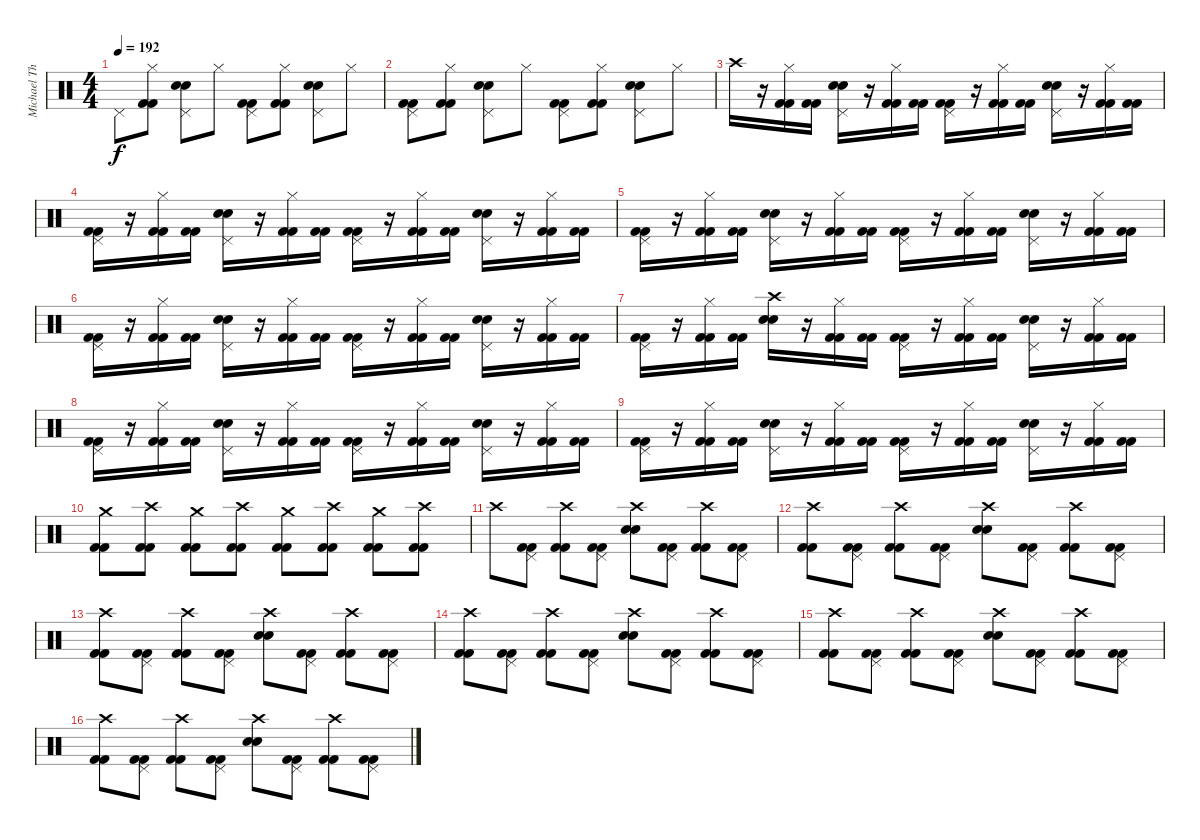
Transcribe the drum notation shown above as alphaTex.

\track ("Michael Thomas" "Michael Th") {instrument percussion}
\staff {score}
\articulation defaults
\ts (4 4)
\tempo 192
\clef neutral
\ks c "Pedal Hi-Hat (hit)".8{dy f}
("Hi-Hat (closed)" "Kick (hit) 2" "Kick (hit) 2").8 ("Pedal Hi-Hat (hit)" "Snare (hit) 2" "Electric Snare (hit)").8 "Hi-Hat (closed)".8 ("Pedal Hi-Hat (hit)" "Kick (hit) 2" "Kick (hit) 2").8 ("Hi-Hat (closed)" "Kick (hit) 2" "Kick (hit) 2").8 ("Pedal Hi-Hat (hit)" "Snare (hit) 2" "Electric Snare (hit)").8 "Hi-Hat (closed)".8 |
("Pedal Hi-Hat (hit)" "Kick (hit) 2" "Kick (hit) 2").8 ("Hi-Hat (closed)" "Kick (hit) 2" "Kick (hit) 2").8 ("Pedal Hi-Hat (hit)" "Snare (hit) 2" "Electric Snare (hit)").8 "Hi-Hat (closed)".8 ("Pedal Hi-Hat (hit)" "Kick (hit) 2" "Kick (hit) 2").8 ("Hi-Hat (closed)" "Kick (hit) 2" "Kick (hit) 2").8 ("Pedal Hi-Hat (hit)" "Snare (hit) 2" "Electric Snare (hit)").8 "Hi-Hat (closed)".8 |
"Crash high (hit)".16 r.16 ("Hi-Hat (closed)" "Kick (hit) 2" "Kick (hit) 2").16 ("Kick (hit) 2" "Kick (hit) 2").16 ("Pedal Hi-Hat (hit)" "Snare (hit) 2" "Electric Snare (hit)").16 r.16 ("Hi-Hat (closed)" "Kick (hit) 2" "Kick (hit) 2").16 ("Kick (hit) 2" "Kick (hit) 2").16 ("Pedal Hi-Hat (hit)" "Kick (hit) 2" "Kick (hit) 2").16 r.16 ("Hi-Hat (closed)" "Kick (hit) 2" "Kick (hit) 2").16 ("Kick (hit) 2" "Kick (hit) 2").16 ("Pedal Hi-Hat (hit)" "Snare (hit) 2" "Electric Snare (hit)").16 r.16 ("Hi-Hat (closed)" "Kick (hit) 2" "Kick (hit) 2").16 ("Kick (hit) 2" "Kick (hit) 2").16 |
("Pedal Hi-Hat (hit)" "Kick (hit) 2" "Kick (hit) 2").16 r.16 ("Hi-Hat (closed)" "Kick (hit) 2" "Kick (hit) 2").16 ("Kick (hit) 2" "Kick (hit) 2").16 ("Pedal Hi-Hat (hit)" "Snare (hit) 2" "Electric Snare (hit)").16 r.16 ("Hi-Hat (closed)" "Kick (hit) 2" "Kick (hit) 2").16 ("Kick (hit) 2" "Kick (hit) 2").16 ("Pedal Hi-Hat (hit)" "Kick (hit) 2" "Kick (hit) 2").16 r.16 ("Hi-Hat (closed)" "Kick (hit) 2" "Kick (hit) 2").16 ("Kick (hit) 2" "Kick (hit) 2").16 ("Pedal Hi-Hat (hit)" "Snare (hit) 2" "Electric Snare (hit)").16 r.16 ("Hi-Hat (closed)" "Kick (hit) 2" "Kick (hit) 2").16 ("Kick (hit) 2" "Kick (hit) 2").16 |
("Pedal Hi-Hat (hit)" "Kick (hit) 2" "Kick (hit) 2").16 r.16 ("Hi-Hat (closed)" "Kick (hit) 2" "Kick (hit) 2").16 ("Kick (hit) 2" "Kick (hit) 2").16 ("Pedal Hi-Hat (hit)" "Snare (hit) 2" "Electric Snare (hit)").16 r.16 ("Hi-Hat (closed)" "Kick (hit) 2" "Kick (hit) 2").16 ("Kick (hit) 2" "Kick (hit) 2").16 ("Pedal Hi-Hat (hit)" "Kick (hit) 2" "Kick (hit) 2").16 r.16 ("Hi-Hat (closed)" "Kick (hit) 2" "Kick (hit) 2").16 ("Kick (hit) 2" "Kick (hit) 2").16 ("Pedal Hi-Hat (hit)" "Snare (hit) 2" "Electric Snare (hit)").16 r.16 ("Hi-Hat (closed)" "Kick (hit) 2" "Kick (hit) 2").16 ("Kick (hit) 2" "Kick (hit) 2").16 |
("Pedal Hi-Hat (hit)" "Kick (hit) 2" "Kick (hit) 2").16 r.16 ("Hi-Hat (closed)" "Kick (hit) 2" "Kick (hit) 2").16 ("Kick (hit) 2" "Kick (hit) 2").16 ("Pedal Hi-Hat (hit)" "Snare (hit) 2" "Electric Snare (hit)").16 r.16 ("Hi-Hat (closed)" "Kick (hit) 2" "Kick (hit) 2").16 ("Kick (hit) 2" "Kick (hit) 2").16 ("Pedal Hi-Hat (hit)" "Kick (hit) 2" "Kick (hit) 2").16 r.16 ("Hi-Hat (closed)" "Kick (hit) 2" "Kick (hit) 2").16 ("Kick (hit) 2" "Kick (hit) 2").16 ("Pedal Hi-Hat (hit)" "Snare (hit) 2" "Electric Snare (hit)").16 r.16 ("Hi-Hat (closed)" "Kick (hit) 2" "Kick (hit) 2").16 ("Kick (hit) 2" "Kick (hit) 2").16 |
("Pedal Hi-Hat (hit)" "Kick (hit) 2" "Kick (hit) 2").16 r.16 ("Hi-Hat (closed)" "Kick (hit) 2" "Kick (hit) 2").16 ("Kick (hit) 2" "Kick (hit) 2").16 ("Crash high (hit)" "Snare (hit) 2" "Electric Snare (hit)").16 r.16 ("Hi-Hat (closed)" "Kick (hit) 2" "Kick (hit) 2").16 ("Kick (hit) 2" "Kick (hit) 2").16 ("Pedal Hi-Hat (hit)" "Kick (hit) 2" "Kick (hit) 2").16 r.16 ("Hi-Hat (closed)" "Kick (hit) 2" "Kick (hit) 2").16 ("Kick (hit) 2" "Kick (hit) 2").16 ("Pedal Hi-Hat (hit)" "Snare (hit) 2" "Electric Snare (hit)").16 r.16 ("Hi-Hat (closed)" "Kick (hit) 2" "Kick (hit) 2").16 ("Kick (hit) 2" "Kick (hit) 2").16 |
("Pedal Hi-Hat (hit)" "Kick (hit) 2" "Kick (hit) 2").16 r.16 ("Hi-Hat (closed)" "Kick (hit) 2" "Kick (hit) 2").16 ("Kick (hit) 2" "Kick (hit) 2").16 ("Pedal Hi-Hat (hit)" "Snare (hit) 2" "Electric Snare (hit)").16 r.16 ("Hi-Hat (closed)" "Kick (hit) 2" "Kick (hit) 2").16 ("Kick (hit) 2" "Kick (hit) 2").16 ("Pedal Hi-Hat (hit)" "Kick (hit) 2" "Kick (hit) 2").16 r.16 ("Hi-Hat (closed)" "Kick (hit) 2" "Kick (hit) 2").16 ("Kick (hit) 2" "Kick (hit) 2").16 ("Pedal Hi-Hat (hit)" "Snare (hit) 2" "Electric Snare (hit)").16 r.16 ("Hi-Hat (closed)" "Kick (hit) 2" "Kick (hit) 2").16 ("Kick (hit) 2" "Kick (hit) 2").16 |
("Pedal Hi-Hat (hit)" "Kick (hit) 2" "Kick (hit) 2").16 r.16 ("Hi-Hat (closed)" "Kick (hit) 2" "Kick (hit) 2").16 ("Kick (hit) 2" "Kick (hit) 2").16 ("Pedal Hi-Hat (hit)" "Snare (hit) 2" "Electric Snare (hit)").16 r.16 ("Hi-Hat (closed)" "Kick (hit) 2" "Kick (hit) 2").16 ("Kick (hit) 2" "Kick (hit) 2").16 ("Pedal Hi-Hat (hit)" "Kick (hit) 2" "Kick (hit) 2").16 r.16 ("Hi-Hat (closed)" "Kick (hit) 2" "Kick (hit) 2").16 ("Kick (hit) 2" "Kick (hit) 2").16 ("Pedal Hi-Hat (hit)" "Snare (hit) 2" "Electric Snare (hit)").16 r.16 ("Hi-Hat (closed)" "Kick (hit) 2" "Kick (hit) 2").16 ("Kick (hit) 2" "Kick (hit) 2").16 |
("Crash medium (hit)" "Kick (hit) 2" "Kick (hit) 2").8 ("Crash high (hit)" "Kick (hit) 2" "Kick (hit) 2").8 ("Crash medium (hit)" "Kick (hit) 2" "Kick (hit) 2").8 ("Crash high (hit)" "Kick (hit) 2" "Kick (hit) 2").8 ("Crash medium (hit)" "Kick (hit) 2" "Kick (hit) 2").8 ("Crash high (hit)" "Kick (hit) 2" "Kick (hit) 2").8 ("Crash medium (hit)" "Kick (hit) 2" "Kick (hit) 2").8 ("Crash high (hit)" "Kick (hit) 2" "Kick (hit) 2").8 |
"Crash high (hit)".8 ("Pedal Hi-Hat (hit)" "Kick (hit) 2" "Kick (hit) 2").8 ("Crash high (hit)" "Kick (hit) 2" "Kick (hit) 2").8 ("Pedal Hi-Hat (hit)" "Kick (hit) 2" "Kick (hit) 2").8 ("Crash high (hit)" "Snare (hit) 2" "Electric Snare (hit)").8 ("Pedal Hi-Hat (hit)" "Kick (hit) 2" "Kick (hit) 2").8 ("Crash high (hit)" "Kick (hit) 2" "Kick (hit) 2").8 ("Pedal Hi-Hat (hit)" "Kick (hit) 2" "Kick (hit) 2").8 |
("Crash high (hit)" "Kick (hit) 2" "Kick (hit) 2").8 ("Pedal Hi-Hat (hit)" "Kick (hit) 2" "Kick (hit) 2").8 ("Crash high (hit)" "Kick (hit) 2" "Kick (hit) 2").8 ("Pedal Hi-Hat (hit)" "Kick (hit) 2" "Kick (hit) 2").8 ("Crash high (hit)" "Snare (hit) 2" "Electric Snare (hit)").8 ("Pedal Hi-Hat (hit)" "Kick (hit) 2" "Kick (hit) 2").8 ("Crash high (hit)" "Kick (hit) 2" "Kick (hit) 2").8 ("Pedal Hi-Hat (hit)" "Kick (hit) 2" "Kick (hit) 2").8 |
("Crash high (hit)" "Kick (hit) 2" "Kick (hit) 2").8 ("Pedal Hi-Hat (hit)" "Kick (hit) 2" "Kick (hit) 2").8 ("Crash high (hit)" "Kick (hit) 2" "Kick (hit) 2").8 ("Pedal Hi-Hat (hit)" "Kick (hit) 2" "Kick (hit) 2").8 ("Crash high (hit)" "Snare (hit) 2" "Electric Snare (hit)").8 ("Pedal Hi-Hat (hit)" "Kick (hit) 2" "Kick (hit) 2").8 ("Crash high (hit)" "Kick (hit) 2" "Kick (hit) 2").8 ("Pedal Hi-Hat (hit)" "Kick (hit) 2" "Kick (hit) 2").8 |
("Crash high (hit)" "Kick (hit) 2" "Kick (hit) 2").8 ("Pedal Hi-Hat (hit)" "Kick (hit) 2" "Kick (hit) 2").8 ("Crash high (hit)" "Kick (hit) 2" "Kick (hit) 2").8 ("Pedal Hi-Hat (hit)" "Kick (hit) 2" "Kick (hit) 2").8 ("Crash high (hit)" "Snare (hit) 2" "Electric Snare (hit)").8 ("Pedal Hi-Hat (hit)" "Kick (hit) 2" "Kick (hit) 2").8 ("Crash high (hit)" "Kick (hit) 2" "Kick (hit) 2").8 ("Pedal Hi-Hat (hit)" "Kick (hit) 2" "Kick (hit) 2").8 |
("Crash high (hit)" "Kick (hit) 2" "Kick (hit) 2").8 ("Pedal Hi-Hat (hit)" "Kick (hit) 2" "Kick (hit) 2").8 ("Crash high (hit)" "Kick (hit) 2" "Kick (hit) 2").8 ("Pedal Hi-Hat (hit)" "Kick (hit) 2" "Kick (hit) 2").8 ("Crash high (hit)" "Snare (hit) 2" "Electric Snare (hit)").8 ("Pedal Hi-Hat (hit)" "Kick (hit) 2" "Kick (hit) 2").8 ("Crash high (hit)" "Kick (hit) 2" "Kick (hit) 2").8 ("Pedal Hi-Hat (hit)" "Kick (hit) 2" "Kick (hit) 2").8 |
("Crash high (hit)" "Kick (hit) 2" "Kick (hit) 2").8 ("Pedal Hi-Hat (hit)" "Kick (hit) 2" "Kick (hit) 2").8 ("Crash high (hit)" "Kick (hit) 2" "Kick (hit) 2").8 ("Pedal Hi-Hat (hit)" "Kick (hit) 2" "Kick (hit) 2").8 ("Crash high (hit)" "Snare (hit) 2" "Electric Snare (hit)").8 ("Pedal Hi-Hat (hit)" "Kick (hit) 2" "Kick (hit) 2").8 ("Crash high (hit)" "Kick (hit) 2" "Kick (hit) 2").8 ("Pedal Hi-Hat (hit)" "Kick (hit) 2" "Kick (hit) 2").8
